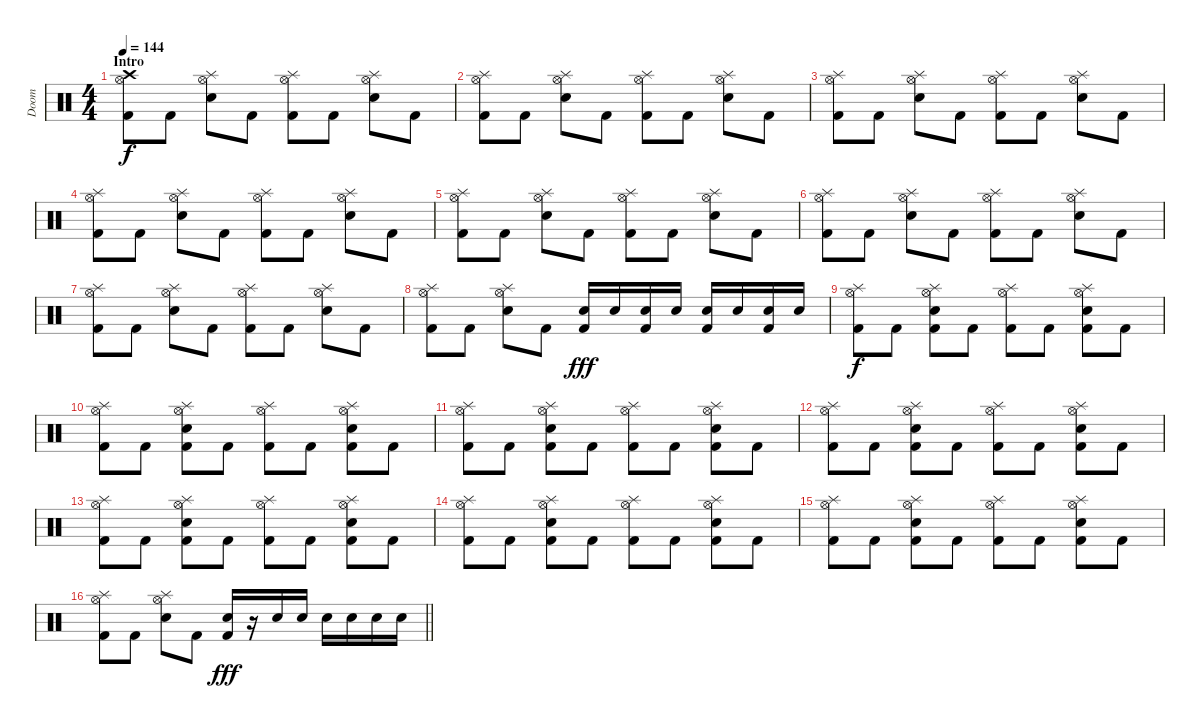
\track ("Doom" "Doom") {instrument percussion}
\staff {score}
\articulation defaults
\ts (4 4)
\section ("" "Intro")
\tempo 144
\clef neutral
\ks c
("Kick (hit) 2" "Hi-Hat (open)" "Crash high (hit)").8{dy f} "Kick (hit) 2".8 ("Snare (hit) 2" "Hi-Hat (open)" "Splash (hit)").8 "Kick (hit) 2".8 ("Kick (hit) 2" "Hi-Hat (open)" "Splash (hit)").8 "Kick (hit) 2".8 ("Snare (hit) 2" "Hi-Hat (open)" "Splash (hit)").8 "Kick (hit) 2".8 |
("Kick (hit) 2" "Hi-Hat (open)" "Splash (hit)").8 "Kick (hit) 2".8 ("Snare (hit) 2" "Hi-Hat (open)" "Splash (hit)").8 "Kick (hit) 2".8 ("Kick (hit) 2" "Hi-Hat (open)" "Splash (hit)").8 "Kick (hit) 2".8 ("Snare (hit) 2" "Hi-Hat (open)" "Splash (hit)").8 "Kick (hit) 2".8 |
("Kick (hit) 2" "Hi-Hat (open)" "Splash (hit)").8 "Kick (hit) 2".8 ("Snare (hit) 2" "Hi-Hat (open)" "Splash (hit)").8 "Kick (hit) 2".8 ("Kick (hit) 2" "Hi-Hat (open)" "Splash (hit)").8 "Kick (hit) 2".8 ("Snare (hit) 2" "Hi-Hat (open)" "Splash (hit)").8 "Kick (hit) 2".8 |
("Kick (hit) 2" "Hi-Hat (open)" "Splash (hit)").8 "Kick (hit) 2".8 ("Snare (hit) 2" "Hi-Hat (open)" "Splash (hit)").8 "Kick (hit) 2".8 ("Kick (hit) 2" "Hi-Hat (open)" "Splash (hit)").8 "Kick (hit) 2".8 ("Snare (hit) 2" "Hi-Hat (open)" "Splash (hit)").8 "Kick (hit) 2".8 |
("Kick (hit) 2" "Hi-Hat (open)" "Splash (hit)").8 "Kick (hit) 2".8 ("Snare (hit) 2" "Hi-Hat (open)" "Splash (hit)").8 "Kick (hit) 2".8 ("Kick (hit) 2" "Hi-Hat (open)" "Splash (hit)").8 "Kick (hit) 2".8 ("Snare (hit) 2" "Hi-Hat (open)" "Splash (hit)").8 "Kick (hit) 2".8 |
("Kick (hit) 2" "Hi-Hat (open)" "Splash (hit)").8 "Kick (hit) 2".8 ("Snare (hit) 2" "Hi-Hat (open)" "Splash (hit)").8 "Kick (hit) 2".8 ("Kick (hit) 2" "Hi-Hat (open)" "Splash (hit)").8 "Kick (hit) 2".8 ("Snare (hit) 2" "Hi-Hat (open)" "Splash (hit)").8 "Kick (hit) 2".8 |
("Kick (hit) 2" "Hi-Hat (open)" "Splash (hit)").8 "Kick (hit) 2".8 ("Snare (hit) 2" "Hi-Hat (open)" "Splash (hit)").8 "Kick (hit) 2".8 ("Kick (hit) 2" "Hi-Hat (open)" "Splash (hit)").8 "Kick (hit) 2".8 ("Snare (hit) 2" "Hi-Hat (open)" "Splash (hit)").8 "Kick (hit) 2".8 |
("Kick (hit) 2" "Hi-Hat (open)" "Splash (hit)").8 "Kick (hit) 2".8 ("Snare (hit) 2" "Hi-Hat (open)" "Splash (hit)").8 "Kick (hit) 2".8 ("Snare (hit) 2" "Kick (hit) 2").16{dy fff} "Snare (hit) 2".16 ("Kick (hit) 2" "Snare (hit) 2").16 "Snare (hit) 2".16 ("Snare (hit) 2" "Kick (hit) 2").16 "Snare (hit) 2".16 ("Snare (hit) 2" "Kick (hit) 2").16 "Snare (hit) 2".16 |
("Kick (hit) 2" "Hi-Hat (open)" "Splash (hit)").8{dy f} "Kick (hit) 2".8 ("Snare (hit) 2" "Hi-Hat (open)" "Splash (hit)" "Kick (hit) 2").8 "Kick (hit) 2".8 ("Kick (hit) 2" "Hi-Hat (open)" "Splash (hit)").8 "Kick (hit) 2".8 ("Snare (hit) 2" "Hi-Hat (open)" "Splash (hit)" "Kick (hit) 2").8 "Kick (hit) 2".8 |
("Kick (hit) 2" "Hi-Hat (open)" "Splash (hit)").8 "Kick (hit) 2".8 ("Snare (hit) 2" "Hi-Hat (open)" "Splash (hit)" "Kick (hit) 2").8 "Kick (hit) 2".8 ("Kick (hit) 2" "Hi-Hat (open)" "Splash (hit)").8 "Kick (hit) 2".8 ("Snare (hit) 2" "Hi-Hat (open)" "Splash (hit)" "Kick (hit) 2").8 "Kick (hit) 2".8 |
("Kick (hit) 2" "Hi-Hat (open)" "Splash (hit)").8 "Kick (hit) 2".8 ("Snare (hit) 2" "Hi-Hat (open)" "Splash (hit)" "Kick (hit) 2").8 "Kick (hit) 2".8 ("Kick (hit) 2" "Hi-Hat (open)" "Splash (hit)").8 "Kick (hit) 2".8 ("Snare (hit) 2" "Hi-Hat (open)" "Splash (hit)" "Kick (hit) 2").8 "Kick (hit) 2".8 |
("Kick (hit) 2" "Hi-Hat (open)" "Splash (hit)").8 "Kick (hit) 2".8 ("Snare (hit) 2" "Hi-Hat (open)" "Splash (hit)" "Kick (hit) 2").8 "Kick (hit) 2".8 ("Kick (hit) 2" "Hi-Hat (open)" "Splash (hit)").8 "Kick (hit) 2".8 ("Snare (hit) 2" "Hi-Hat (open)" "Splash (hit)" "Kick (hit) 2").8 "Kick (hit) 2".8 |
("Kick (hit) 2" "Hi-Hat (open)" "Splash (hit)").8 "Kick (hit) 2".8 ("Snare (hit) 2" "Hi-Hat (open)" "Splash (hit)" "Kick (hit) 2").8 "Kick (hit) 2".8 ("Kick (hit) 2" "Hi-Hat (open)" "Splash (hit)").8 "Kick (hit) 2".8 ("Snare (hit) 2" "Hi-Hat (open)" "Splash (hit)" "Kick (hit) 2").8 "Kick (hit) 2".8 |
("Kick (hit) 2" "Hi-Hat (open)" "Splash (hit)").8 "Kick (hit) 2".8 ("Snare (hit) 2" "Hi-Hat (open)" "Splash (hit)" "Kick (hit) 2").8 "Kick (hit) 2".8 ("Kick (hit) 2" "Hi-Hat (open)" "Splash (hit)").8 "Kick (hit) 2".8 ("Snare (hit) 2" "Hi-Hat (open)" "Splash (hit)" "Kick (hit) 2").8 "Kick (hit) 2".8 |
("Kick (hit) 2" "Hi-Hat (open)" "Splash (hit)").8 "Kick (hit) 2".8 ("Snare (hit) 2" "Hi-Hat (open)" "Splash (hit)" "Kick (hit) 2").8 "Kick (hit) 2".8 ("Kick (hit) 2" "Hi-Hat (open)" "Splash (hit)").8 "Kick (hit) 2".8 ("Snare (hit) 2" "Hi-Hat (open)" "Splash (hit)" "Kick (hit) 2").8 "Kick (hit) 2".8 |
\barLineRight lightlight
("Kick (hit) 2" "Hi-Hat (open)" "Splash (hit)").8 "Kick (hit) 2".8 ("Snare (hit) 2" "Hi-Hat (open)" "Splash (hit)").8 "Kick (hit) 2".8 ("Snare (hit) 2" "Kick (hit) 2").16{dy fff} r.16 "Snare (hit) 2".16 "Snare (hit) 2".16 "Snare (hit) 2".16 "Snare (hit) 2".16 "Snare (hit) 2".16 "Snare (hit) 2".16
